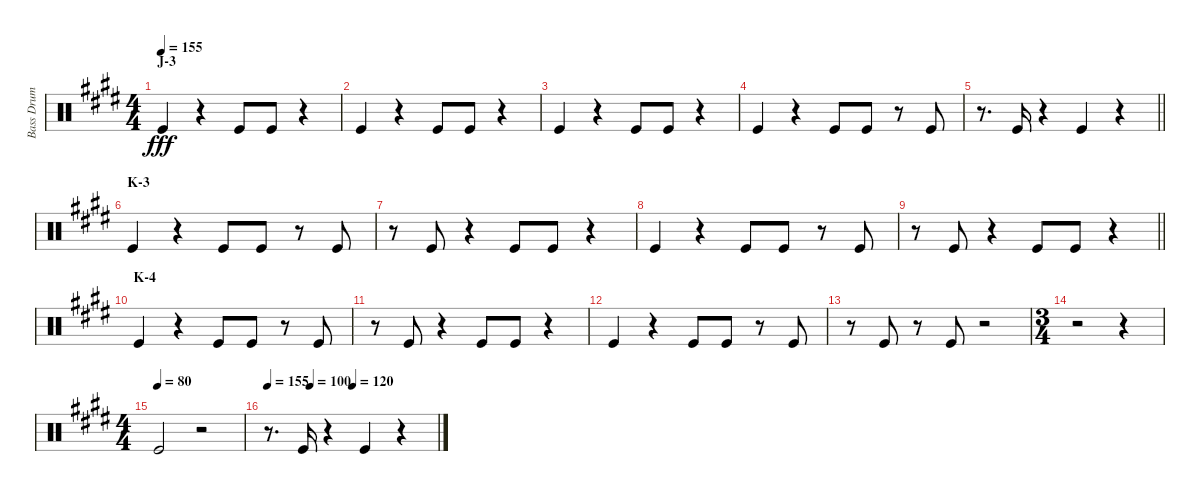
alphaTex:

\track ("Bass Drum" "Bass Drum") {instrument percussion}
\staff {score}
\articulation defaults
\ts (4 4)
\section ("" "J-3")
\tempo 155
\clef neutral
\ks e "Kick (hit)".4{dy fff}
r.4 "Kick (hit)".8 "Kick (hit)".8 r.4 |
"Kick (hit)".4 r.4 "Kick (hit)".8 "Kick (hit)".8 r.4 |
"Kick (hit)".4 r.4 "Kick (hit)".8 "Kick (hit)".8 r.4 |
"Kick (hit)".4 r.4 "Kick (hit)".8 "Kick (hit)".8 r.8 "Kick (hit)".8 |
\barLineRight lightlight
r.8{d} "Kick (hit)".16 r.4 "Kick (hit)".4 r.4 |
\section ("" "K-3")
"Kick (hit)".4 r.4 "Kick (hit)".8 "Kick (hit)".8 r.8 "Kick (hit)".8 |
r.8 "Kick (hit)".8 r.4 "Kick (hit)".8 "Kick (hit)".8 r.4 |
"Kick (hit)".4 r.4 "Kick (hit)".8 "Kick (hit)".8 r.8 "Kick (hit)".8 |
\barLineRight lightlight
r.8 "Kick (hit)".8 r.4 "Kick (hit)".8 "Kick (hit)".8 r.4 |
\section ("" "K-4")
"Kick (hit)".4 r.4 "Kick (hit)".8 "Kick (hit)".8 r.8 "Kick (hit)".8 |
r.8 "Kick (hit)".8 r.4 "Kick (hit)".8 "Kick (hit)".8 r.4 |
"Kick (hit)".4 r.4 "Kick (hit)".8 "Kick (hit)".8 r.8 "Kick (hit)".8 |
r.8 "Kick (hit)".8 r.8 "Kick (hit)".8 r.2 |
\ts (3 4)
r.2 r.4 |
\ts (4 4)
\tempo (80)
"Kick (hit)".2 r.2 |
\tempo 155
\tempo (100 0.25)
\tempo (120 0.5)
r.8{d} "Kick (hit)".16 r.4 "Kick (hit)".4 r.4
